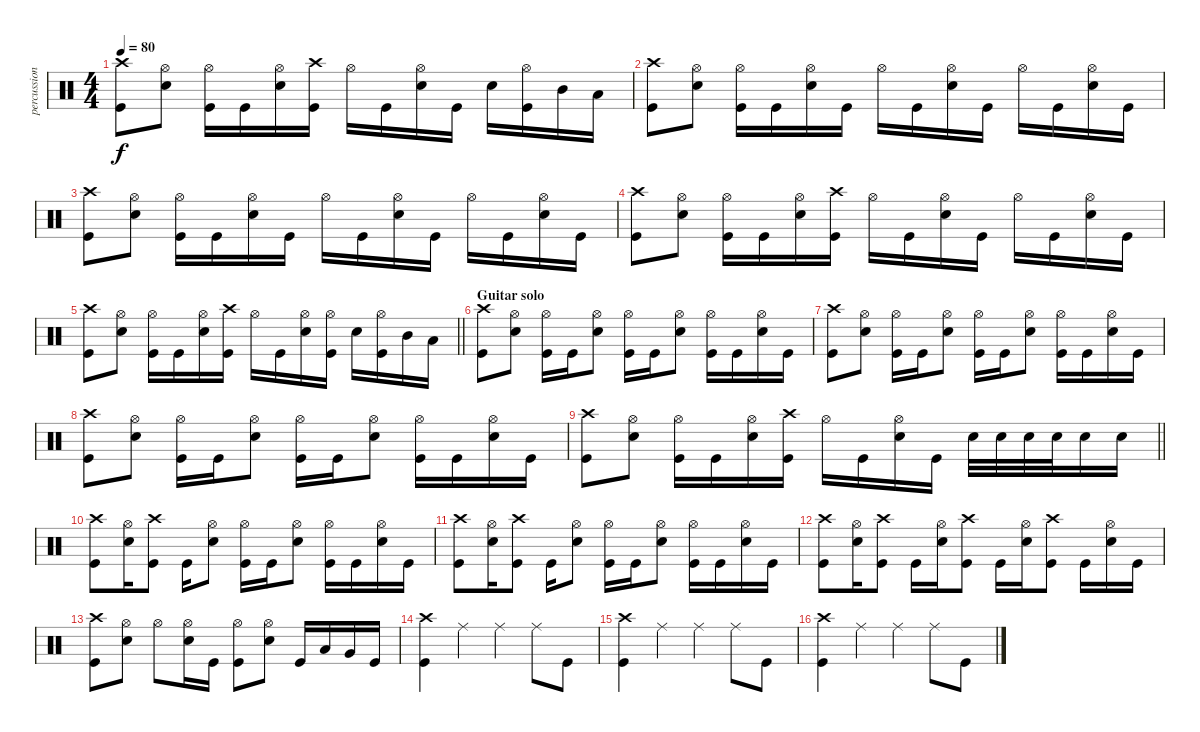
\track ("percussion" "percussion") {instrument percussion}
\staff {score}
\articulation defaults
\ts (4 4)
\tempo 80
\clef neutral
\ks c
("Crash high (hit)" "Kick (hit)").8{dy f} ("Hi-Hat (open)" "Snare (hit) 2").8 ("Hi-Hat (open)" "Kick (hit)").16 "Kick (hit)".16 ("Hi-Hat (open)" "Snare (hit) 2").16 ("Crash high (hit)" "Kick (hit)").16 "Hi-Hat (open)".16 "Kick (hit)".16 ("Hi-Hat (open)" "Snare (hit) 2").16 "Kick (hit)".16 "Snare (hit) 2".16 ("Hi-Hat (open)" "Kick (hit)").16 "Mid Tom (hit)".16 "Low Tom (hit)".16 |
("Crash high (hit)" "Kick (hit)").8 ("Hi-Hat (open)" "Snare (hit) 2").8 ("Hi-Hat (open)" "Kick (hit)").16 "Kick (hit)".16 ("Hi-Hat (open)" "Snare (hit) 2").16 "Kick (hit)".16 "Hi-Hat (open)".16 "Kick (hit)".16 ("Hi-Hat (open)" "Snare (hit) 2").16 "Kick (hit)".16 "Hi-Hat (open)".16 "Kick (hit)".16 ("Hi-Hat (open)" "Snare (hit) 2").16 "Kick (hit)".16 |
("Crash high (hit)" "Kick (hit)").8 ("Hi-Hat (open)" "Snare (hit) 2").8 ("Hi-Hat (open)" "Kick (hit)").16 "Kick (hit)".16 ("Hi-Hat (open)" "Snare (hit) 2").16 "Kick (hit)".16 "Hi-Hat (open)".16 "Kick (hit)".16 ("Hi-Hat (open)" "Snare (hit) 2").16 "Kick (hit)".16 "Hi-Hat (open)".16 "Kick (hit)".16 ("Hi-Hat (open)" "Snare (hit) 2").16 "Kick (hit)".16 |
("Crash high (hit)" "Kick (hit)").8 ("Hi-Hat (open)" "Snare (hit) 2").8 ("Hi-Hat (open)" "Kick (hit)").16 "Kick (hit)".16 ("Hi-Hat (open)" "Snare (hit) 2").16 ("Crash high (hit)" "Kick (hit)").16 "Hi-Hat (open)".16 "Kick (hit)".16 ("Hi-Hat (open)" "Snare (hit) 2").16 "Kick (hit)".16 "Hi-Hat (open)".16 "Kick (hit)".16 ("Hi-Hat (open)" "Snare (hit) 2").16 "Kick (hit)".16 |
\barLineRight lightlight
("Crash high (hit)" "Kick (hit)").8 ("Hi-Hat (open)" "Snare (hit) 2").8 ("Hi-Hat (open)" "Kick (hit)").16 "Kick (hit)".16 ("Hi-Hat (open)" "Snare (hit) 2").16 ("Crash high (hit)" "Kick (hit)").16 "Hi-Hat (open)".16 "Kick (hit)".16 ("Hi-Hat (open)" "Snare (hit) 2").16 ("Hi-Hat (open)" "Kick (hit)").16 "Snare (hit) 2".16 ("Hi-Hat (open)" "Kick (hit)").16 "Mid Tom (hit)".16 "Low Tom (hit)".16 |
\section ("" "Guitar solo")
("Crash high (hit)" "Kick (hit)").8 ("Hi-Hat (open)" "Snare (hit) 2").8 ("Hi-Hat (open)" "Kick (hit)").16 "Kick (hit)".16 ("Hi-Hat (open)" "Snare (hit) 2").8 ("Hi-Hat (open)" "Kick (hit)").16 "Kick (hit)".16 ("Hi-Hat (open)" "Snare (hit) 2").8 ("Hi-Hat (open)" "Kick (hit)").16 "Kick (hit)".16 ("Hi-Hat (open)" "Snare (hit) 2").16 "Kick (hit)".16 |
("Crash high (hit)" "Kick (hit)").8 ("Hi-Hat (open)" "Snare (hit) 2").8 ("Hi-Hat (open)" "Kick (hit)").16 "Kick (hit)".16 ("Hi-Hat (open)" "Snare (hit) 2").8 ("Hi-Hat (open)" "Kick (hit)").16 "Kick (hit)".16 ("Hi-Hat (open)" "Snare (hit) 2").8 ("Hi-Hat (open)" "Kick (hit)").16 "Kick (hit)".16 ("Hi-Hat (open)" "Snare (hit) 2").16 "Kick (hit)".16 |
("Crash high (hit)" "Kick (hit)").8 ("Hi-Hat (open)" "Snare (hit) 2").8 ("Hi-Hat (open)" "Kick (hit)").16 "Kick (hit)".16 ("Hi-Hat (open)" "Snare (hit) 2").8 ("Hi-Hat (open)" "Kick (hit)").16 "Kick (hit)".16 ("Hi-Hat (open)" "Snare (hit) 2").8 ("Hi-Hat (open)" "Kick (hit)").16 "Kick (hit)".16 ("Hi-Hat (open)" "Snare (hit) 2").16 "Kick (hit)".16 |
\barLineRight lightlight
("Crash high (hit)" "Kick (hit)").8 ("Hi-Hat (open)" "Snare (hit) 2").8 ("Hi-Hat (open)" "Kick (hit)").16 "Kick (hit)".16 ("Hi-Hat (open)" "Snare (hit) 2").16 ("Crash high (hit)" "Kick (hit)").16 "Hi-Hat (open)".16 "Kick (hit)".16 ("Hi-Hat (open)" "Snare (hit) 2").16 "Kick (hit)".16 "Snare (hit) 2".32 "Snare (hit) 2".32 "Snare (hit) 2".32 "Snare (hit) 2".32 "Snare (hit) 2".16 "Snare (hit) 2".16 |
("Crash high (hit)" "Kick (hit)").8 ("Hi-Hat (open)" "Snare (hit) 2").16 ("Crash high (hit)" "Kick (hit)").8 "Kick (hit)".16 ("Hi-Hat (open)" "Snare (hit) 2").8 ("Hi-Hat (open)" "Kick (hit)").16 "Kick (hit)".16 ("Hi-Hat (open)" "Snare (hit) 2").8 ("Hi-Hat (open)" "Kick (hit)").16 "Kick (hit)".16 ("Hi-Hat (open)" "Snare (hit) 2").16 "Kick (hit)".16 |
("Crash high (hit)" "Kick (hit)").8 ("Hi-Hat (open)" "Snare (hit) 2").16 ("Crash high (hit)" "Kick (hit)").8 "Kick (hit)".16 ("Hi-Hat (open)" "Snare (hit) 2").8 ("Hi-Hat (open)" "Kick (hit)").16 "Kick (hit)".16 ("Hi-Hat (open)" "Snare (hit) 2").8 ("Hi-Hat (open)" "Kick (hit)").16 "Kick (hit)".16 ("Hi-Hat (open)" "Snare (hit) 2").16 "Kick (hit)".16 |
("Crash high (hit)" "Kick (hit)").8 ("Hi-Hat (open)" "Snare (hit) 2").16 ("Crash high (hit)" "Kick (hit)").8 "Kick (hit)".16 ("Hi-Hat (open)" "Snare (hit) 2").16 ("Crash high (hit)" "Kick (hit)").8 "Kick (hit)".16 ("Hi-Hat (open)" "Snare (hit) 2").16 ("Crash high (hit)" "Kick (hit)").8 "Kick (hit)".16 ("Hi-Hat (open)" "Snare (hit) 2").16 "Kick (hit)".16 |
("Crash high (hit)" "Kick (hit)").8 ("Hi-Hat (open)" "Snare (hit) 2").8 "Hi-Hat (open)".8 ("Hi-Hat (open)" "Snare (hit) 2").16 "Kick (hit)".16 ("Hi-Hat (open)" "Kick (hit)").8 ("Hi-Hat (open)" "Snare (hit) 2").8 "Kick (hit)".16 "Low Tom (hit)".16 "Very Low Tom (hit)".16 "Kick (hit)".16 |
("Crash high (hit)" "Kick (hit)").4 "Ride (middle)".4 "Ride (middle)".4 "Ride (middle)".8 "Kick (hit)".8 |
("Crash high (hit)" "Kick (hit)").4 "Ride (middle)".4 "Ride (middle)".4 "Ride (middle)".8 "Kick (hit)".8 |
("Crash high (hit)" "Kick (hit)").4 "Ride (middle)".4 "Ride (middle)".4 "Ride (middle)".8 "Kick (hit)".8
